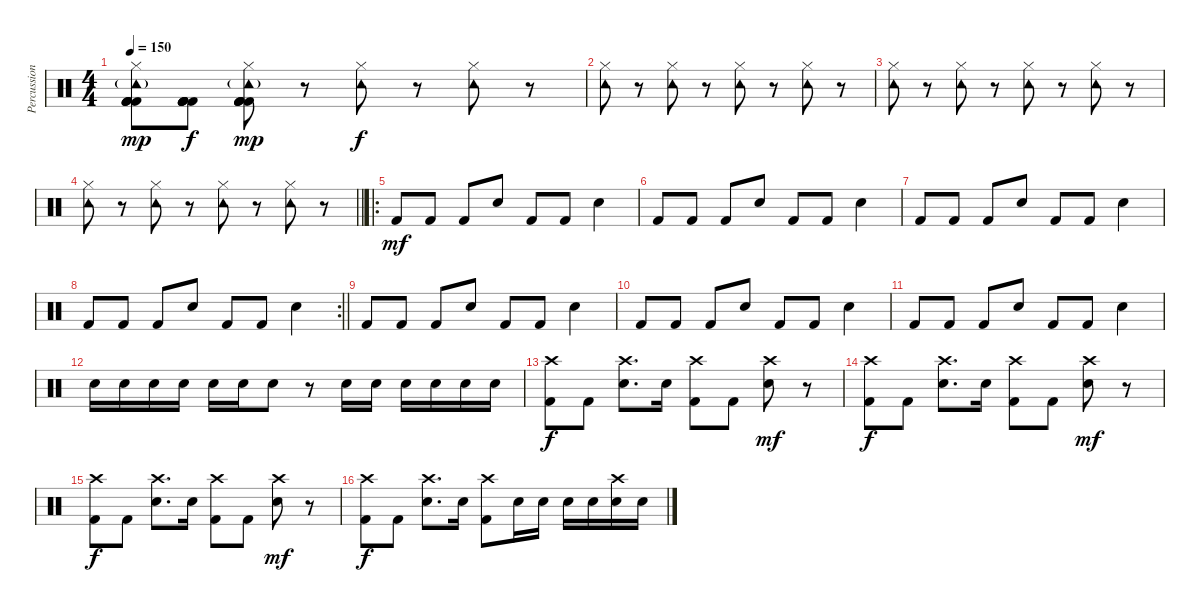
\track ("Percussion" "Percussion") {instrument percussion}
\staff {score}
\articulation defaults
\ts (4 4)
\tempo 150
\clef neutral
\ks c
("Hi-Hat (closed)" "Kick (hit) 2" "Kick (hit) 2" "Tambourine (hit)"{g} "Kick (hit) 2" "Kick (hit) 2").8{dy mp} ("Kick (hit) 2" "Kick (hit) 2" "Kick (hit) 2" "Kick (hit) 2" "Kick (hit) 2").8{dy f} ("Hi-Hat (closed)" "Kick (hit) 2" "Kick (hit) 2" "Tambourine (hit)"{g} "Kick (hit) 2" "Kick (hit) 2").8{dy mp} r.8 ("Hi-Hat (closed)" "Tambourine (hit)").8{dy f} r.8 ("Hi-Hat (closed)" "Tambourine (hit)").8 r.8 |
("Hi-Hat (closed)" "Tambourine (hit)").8 r.8 ("Hi-Hat (closed)" "Tambourine (hit)").8 r.8 ("Hi-Hat (closed)" "Tambourine (hit)").8 r.8 ("Hi-Hat (closed)" "Tambourine (hit)").8 r.8 |
("Hi-Hat (closed)" "Tambourine (hit)").8 r.8 ("Hi-Hat (closed)" "Tambourine (hit)").8 r.8 ("Hi-Hat (closed)" "Tambourine (hit)").8 r.8 ("Hi-Hat (closed)" "Tambourine (hit)").8 r.8 |
\barLineRight lightlight
("Hi-Hat (closed)" "Tambourine (hit)").8 r.8 ("Hi-Hat (closed)" "Tambourine (hit)").8 r.8 ("Hi-Hat (closed)" "Tambourine (hit)").8 r.8 ("Hi-Hat (closed)" "Tambourine (hit)").8 r.8 |
\ro "Kick (hit) 2".8{dy mf} "Kick (hit) 2".8 "Kick (hit) 2".8 "Electric Snare (hit)".8 "Kick (hit) 2".8 "Kick (hit) 2".8 "Electric Snare (hit)".4
|
"Kick (hit) 2".8 "Kick (hit) 2".8 "Kick (hit) 2".8 "Electric Snare (hit)".8 "Kick (hit) 2".8 "Kick (hit) 2".8 "Electric Snare (hit)".4 |
"Kick (hit) 2".8 "Kick (hit) 2".8 "Kick (hit) 2".8 "Electric Snare (hit)".8 "Kick (hit) 2".8 "Kick (hit) 2".8 "Electric Snare (hit)".4 |
\rc 2
\barLineRight lightlight "Kick (hit) 2".8 "Kick (hit) 2".8 "Kick (hit) 2".8 "Electric Snare (hit)".8 "Kick (hit) 2".8 "Kick (hit) 2".8 "Electric Snare (hit)".4
|
"Kick (hit) 2".8 "Kick (hit) 2".8 "Kick (hit) 2".8 "Electric Snare (hit)".8 "Kick (hit) 2".8 "Kick (hit) 2".8 "Electric Snare (hit)".4 |
"Kick (hit) 2".8 "Kick (hit) 2".8 "Kick (hit) 2".8 "Electric Snare (hit)".8 "Kick (hit) 2".8 "Kick (hit) 2".8 "Electric Snare (hit)".4 |
"Kick (hit) 2".8 "Kick (hit) 2".8 "Kick (hit) 2".8 "Electric Snare (hit)".8 "Kick (hit) 2".8 "Kick (hit) 2".8 "Electric Snare (hit)".4 |
"Electric Snare (hit)".16 "Electric Snare (hit)".16 "Electric Snare (hit)".16 "Electric Snare (hit)".16 "Electric Snare (hit)".16 "Electric Snare (hit)".16 "Electric Snare (hit)".8 r.8 "Electric Snare (hit)".16 "Electric Snare (hit)".16 "Electric Snare (hit)".16 "Electric Snare (hit)".16 "Electric Snare (hit)".16 "Electric Snare (hit)".16 |
("Kick (hit) 2" "Crash high (hit)").8{dy f} "Kick (hit) 2".8 ("Electric Snare (hit)" "Crash high (hit)").8{d} "Electric Snare (hit)".16 ("Kick (hit) 2" "Crash high (hit)").8 "Kick (hit) 2".8 ("Electric Snare (hit)" "Crash high (hit)").8{dy mf} r.8 |
("Kick (hit) 2" "Crash high (hit)").8{dy f} "Kick (hit) 2".8 ("Electric Snare (hit)" "Crash high (hit)").8{d} "Electric Snare (hit)".16 ("Kick (hit) 2" "Crash high (hit)").8 "Kick (hit) 2".8 ("Electric Snare (hit)" "Crash high (hit)").8{dy mf} r.8 |
("Kick (hit) 2" "Crash high (hit)").8{dy f} "Kick (hit) 2".8 ("Electric Snare (hit)" "Crash high (hit)").8{d} "Electric Snare (hit)".16 ("Kick (hit) 2" "Crash high (hit)").8 "Kick (hit) 2".8 ("Electric Snare (hit)" "Crash high (hit)").8{dy mf} r.8 |
("Kick (hit) 2" "Crash high (hit)").8{dy f} "Kick (hit) 2".8 ("Electric Snare (hit)" "Crash high (hit)").8{d} "Electric Snare (hit)".16 ("Kick (hit) 2" "Crash high (hit)").8 "Electric Snare (hit)".16 "Electric Snare (hit)".16 "Electric Snare (hit)".16 "Electric Snare (hit)".16 ("Electric Snare (hit)" "Crash high (hit)").16 "Electric Snare (hit)".16
